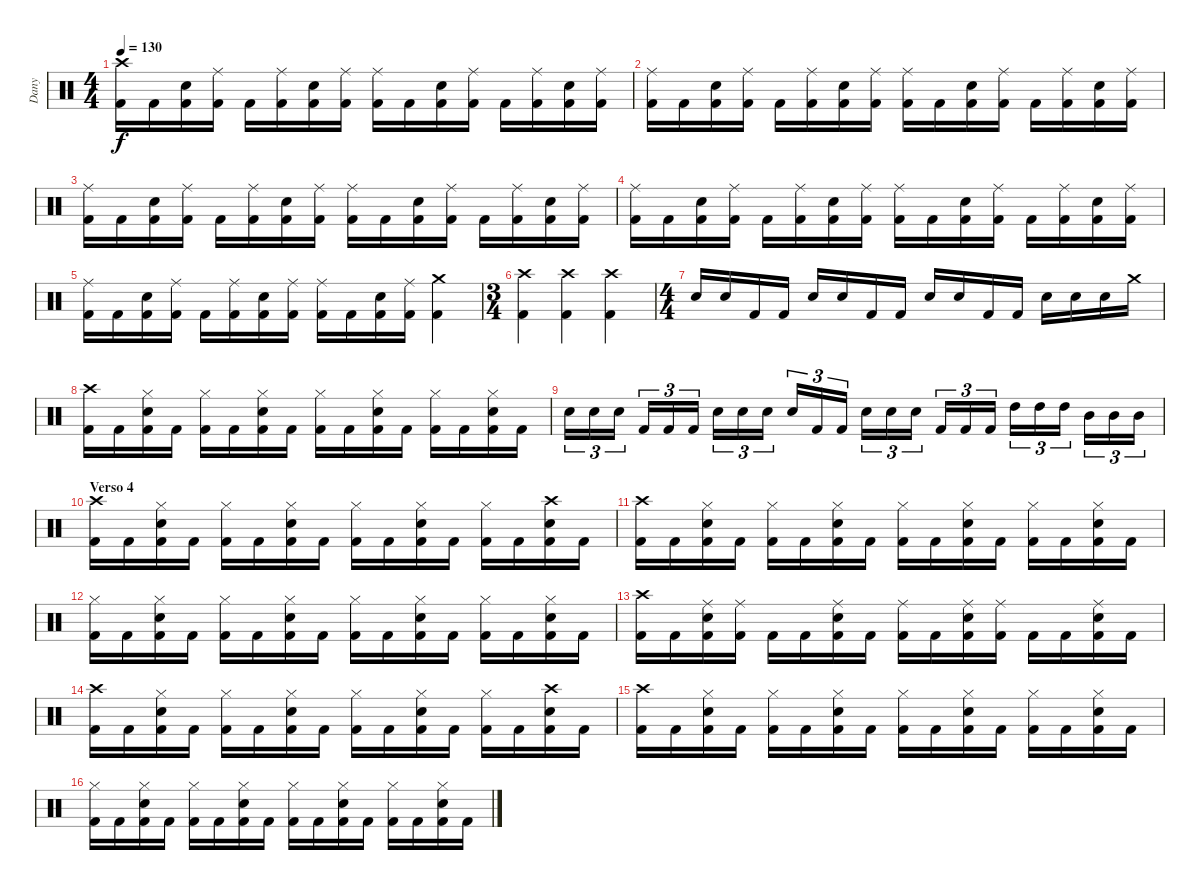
\track ("Dany" "Dany") {instrument percussion}
\staff {score}
\articulation defaults
\ts (4 4)
\tempo 130
\clef neutral
\ks c
("Kick (hit) 2" "Crash high (hit)").16{dy f} "Kick (hit) 2".16 ("Kick (hit) 2" "Electric Snare (hit)").16 ("Kick (hit) 2" "Ride (middle)").16 "Kick (hit) 2".16 ("Kick (hit) 2" "Ride (middle)").16 ("Kick (hit) 2" "Electric Snare (hit)").16 ("Kick (hit) 2" "Ride (middle)").16 ("Kick (hit) 2" "Ride (middle)").16 "Kick (hit) 2".16 ("Kick (hit) 2" "Electric Snare (hit)").16 ("Kick (hit) 2" "Ride (middle)").16 "Kick (hit) 2".16 ("Kick (hit) 2" "Ride (middle)").16 ("Kick (hit) 2" "Electric Snare (hit)").16 ("Kick (hit) 2" "Ride (middle)").16 |
("Kick (hit) 2" "Ride (middle)").16 "Kick (hit) 2".16 ("Kick (hit) 2" "Electric Snare (hit)").16 ("Kick (hit) 2" "Ride (middle)").16 "Kick (hit) 2".16 ("Kick (hit) 2" "Ride (middle)").16 ("Kick (hit) 2" "Electric Snare (hit)").16 ("Kick (hit) 2" "Ride (middle)").16 ("Kick (hit) 2" "Ride (middle)").16 "Kick (hit) 2".16 ("Kick (hit) 2" "Electric Snare (hit)").16 ("Kick (hit) 2" "Ride (middle)").16 "Kick (hit) 2".16 ("Kick (hit) 2" "Ride (middle)").16 ("Kick (hit) 2" "Electric Snare (hit)").16 ("Kick (hit) 2" "Ride (middle)").16 |
("Kick (hit) 2" "Ride (middle)").16 "Kick (hit) 2".16 ("Kick (hit) 2" "Electric Snare (hit)").16 ("Kick (hit) 2" "Ride (middle)").16 "Kick (hit) 2".16 ("Kick (hit) 2" "Ride (middle)").16 ("Kick (hit) 2" "Electric Snare (hit)").16 ("Kick (hit) 2" "Ride (middle)").16 ("Kick (hit) 2" "Ride (middle)").16 "Kick (hit) 2".16 ("Kick (hit) 2" "Electric Snare (hit)").16 ("Kick (hit) 2" "Ride (middle)").16 "Kick (hit) 2".16 ("Kick (hit) 2" "Ride (middle)").16 ("Kick (hit) 2" "Electric Snare (hit)").16 ("Kick (hit) 2" "Ride (middle)").16 |
("Kick (hit) 2" "Ride (middle)").16 "Kick (hit) 2".16 ("Kick (hit) 2" "Electric Snare (hit)").16 ("Kick (hit) 2" "Ride (middle)").16 "Kick (hit) 2".16 ("Kick (hit) 2" "Ride (middle)").16 ("Kick (hit) 2" "Electric Snare (hit)").16 ("Kick (hit) 2" "Ride (middle)").16 ("Kick (hit) 2" "Ride (middle)").16 "Kick (hit) 2".16 ("Kick (hit) 2" "Electric Snare (hit)").16 ("Kick (hit) 2" "Ride (middle)").16 "Kick (hit) 2".16 ("Kick (hit) 2" "Ride (middle)").16 ("Kick (hit) 2" "Electric Snare (hit)").16 ("Kick (hit) 2" "Ride (middle)").16 |
("Kick (hit) 2" "Ride (middle)").16 "Kick (hit) 2".16 ("Kick (hit) 2" "Electric Snare (hit)").16 ("Kick (hit) 2" "Ride (middle)").16 "Kick (hit) 2".16 ("Kick (hit) 2" "Ride (middle)").16 ("Kick (hit) 2" "Electric Snare (hit)").16 ("Kick (hit) 2" "Ride (middle)").16 ("Kick (hit) 2" "Ride (middle)").16 "Kick (hit) 2".16 ("Kick (hit) 2" "Electric Snare (hit)").16 ("Kick (hit) 2" "Ride (middle)").16 ("Kick (hit) 2" "Crash medium (hit)").4 |
\ts (3 4)
("Kick (hit) 2" "Crash high (hit)").4 ("Kick (hit) 2" "Crash high (hit)").4 ("Kick (hit) 2" "Crash high (hit)").4 |
\ts (4 4)
"Electric Snare (hit)".16 "Electric Snare (hit)".16 "Kick (hit) 2".16 "Kick (hit) 2".16 "Electric Snare (hit)".16 "Electric Snare (hit)".16 "Kick (hit) 2".16 "Kick (hit) 2".16 "Electric Snare (hit)".16 "Electric Snare (hit)".16 "Kick (hit) 2".16 "Kick (hit) 2".16 "Electric Snare (hit)".16 "Electric Snare (hit)".16 "Electric Snare (hit)".16 "Crash medium (hit)".16 |
("Kick (hit) 2" "Crash high (hit)").16 "Kick (hit) 2".16 ("Kick (hit) 2" "Electric Snare (hit)" "Hi-Hat (closed)").16 "Kick (hit) 2".16 ("Kick (hit) 2" "Hi-Hat (closed)").16 "Kick (hit) 2".16 ("Kick (hit) 2" "Electric Snare (hit)" "Hi-Hat (closed)").16 "Kick (hit) 2".16 ("Kick (hit) 2" "Hi-Hat (closed)").16 "Kick (hit) 2".16 ("Kick (hit) 2" "Electric Snare (hit)" "Hi-Hat (closed)").16 "Kick (hit) 2".16 ("Kick (hit) 2" "Hi-Hat (closed)").16 "Kick (hit) 2".16 ("Kick (hit) 2" "Electric Snare (hit)" "Hi-Hat (closed)").16 "Kick (hit) 2".16 |
"Electric Snare (hit)".16{tu (3 2)} "Electric Snare (hit)".16{tu (3 2)} "Electric Snare (hit)".16{tu (3 2)} "Kick (hit) 2".16{tu (3 2)} "Kick (hit) 2".16{tu (3 2)} "Kick (hit) 2".16{tu (3 2)} "Electric Snare (hit)".16{tu (3 2)} "Electric Snare (hit)".16{tu (3 2)} "Electric Snare (hit)".16{tu (3 2)} "Electric Snare (hit)".16{tu (3 2)} "Kick (hit) 2".16{tu (3 2)} "Kick (hit) 2".16{tu (3 2)} "Electric Snare (hit)".16{tu (3 2)} "Electric Snare (hit)".16{tu (3 2)} "Electric Snare (hit)".16{tu (3 2)} "Kick (hit) 2".16{tu (3 2)} "Kick (hit) 2".16{tu (3 2)} "Kick (hit) 2".16{tu (3 2)} "High Tom (hit)".16{tu (3 2)} "High Tom (hit)".16{tu (3 2)} "High Tom (hit)".16{tu (3 2)} "Mid Tom (hit)".16{tu (3 2)} "Mid Tom (hit)".16{tu (3 2)} "Mid Tom (hit)".16{tu (3 2)} |
\section ("" "Verso 4")
("Kick (hit) 2" "Crash high (hit)").16 "Kick (hit) 2".16 ("Kick (hit) 2" "Electric Snare (hit)" "Hi-Hat (closed)").16 "Kick (hit) 2".16 ("Kick (hit) 2" "Hi-Hat (closed)").16 "Kick (hit) 2".16 ("Kick (hit) 2" "Electric Snare (hit)" "Hi-Hat (closed)").16 "Kick (hit) 2".16 ("Kick (hit) 2" "Hi-Hat (closed)").16 "Kick (hit) 2".16 ("Kick (hit) 2" "Electric Snare (hit)" "Hi-Hat (closed)").16 "Kick (hit) 2".16 ("Kick (hit) 2" "Hi-Hat (closed)").16 "Kick (hit) 2".16 ("Kick (hit) 2" "Electric Snare (hit)" "Crash high (hit)").16 "Kick (hit) 2".16 |
("Kick (hit) 2" "Crash high (hit)").16 "Kick (hit) 2".16 ("Kick (hit) 2" "Electric Snare (hit)" "Hi-Hat (closed)").16 "Kick (hit) 2".16 ("Kick (hit) 2" "Hi-Hat (closed)").16 "Kick (hit) 2".16 ("Kick (hit) 2" "Electric Snare (hit)" "Hi-Hat (closed)").16 "Kick (hit) 2".16 ("Kick (hit) 2" "Hi-Hat (closed)").16 "Kick (hit) 2".16 ("Kick (hit) 2" "Electric Snare (hit)" "Hi-Hat (closed)").16 "Kick (hit) 2".16 ("Kick (hit) 2" "Hi-Hat (closed)").16 "Kick (hit) 2".16 ("Kick (hit) 2" "Electric Snare (hit)" "Hi-Hat (closed)").16 "Kick (hit) 2".16 |
("Kick (hit) 2" "Hi-Hat (closed)").16 "Kick (hit) 2".16 ("Kick (hit) 2" "Electric Snare (hit)" "Hi-Hat (closed)").16 "Kick (hit) 2".16 ("Kick (hit) 2" "Hi-Hat (closed)").16 "Kick (hit) 2".16 ("Kick (hit) 2" "Electric Snare (hit)" "Hi-Hat (closed)").16 "Kick (hit) 2".16 ("Kick (hit) 2" "Hi-Hat (closed)").16 "Kick (hit) 2".16 ("Kick (hit) 2" "Electric Snare (hit)" "Hi-Hat (closed)").16 "Kick (hit) 2".16 ("Kick (hit) 2" "Hi-Hat (closed)").16 "Kick (hit) 2".16 ("Kick (hit) 2" "Electric Snare (hit)" "Hi-Hat (closed)").16 "Kick (hit) 2".16 |
("Kick (hit) 2" "Crash high (hit)").16 "Kick (hit) 2".16 ("Kick (hit) 2" "Electric Snare (hit)" "Ride (middle)").16 ("Kick (hit) 2" "Ride (middle)").16 "Kick (hit) 2".16 "Kick (hit) 2".16 ("Kick (hit) 2" "Electric Snare (hit)" "Ride (middle)").16 "Kick (hit) 2".16 ("Kick (hit) 2" "Ride (middle)").16 "Kick (hit) 2".16 ("Kick (hit) 2" "Electric Snare (hit)" "Ride (middle)").16 ("Kick (hit) 2" "Ride (middle)").16 "Kick (hit) 2".16 "Kick (hit) 2".16 ("Kick (hit) 2" "Electric Snare (hit)" "Ride (middle)").16 "Kick (hit) 2".16 |
("Kick (hit) 2" "Crash high (hit)").16 "Kick (hit) 2".16 ("Kick (hit) 2" "Electric Snare (hit)" "Hi-Hat (closed)").16 "Kick (hit) 2".16 ("Kick (hit) 2" "Hi-Hat (closed)").16 "Kick (hit) 2".16 ("Kick (hit) 2" "Electric Snare (hit)" "Hi-Hat (closed)").16 "Kick (hit) 2".16 ("Kick (hit) 2" "Hi-Hat (closed)").16 "Kick (hit) 2".16 ("Kick (hit) 2" "Electric Snare (hit)" "Hi-Hat (closed)").16 "Kick (hit) 2".16 ("Kick (hit) 2" "Hi-Hat (closed)").16 "Kick (hit) 2".16 ("Kick (hit) 2" "Electric Snare (hit)" "Crash high (hit)").16 "Kick (hit) 2".16 |
("Kick (hit) 2" "Crash high (hit)").16 "Kick (hit) 2".16 ("Kick (hit) 2" "Electric Snare (hit)" "Hi-Hat (closed)").16 "Kick (hit) 2".16 ("Kick (hit) 2" "Hi-Hat (closed)").16 "Kick (hit) 2".16 ("Kick (hit) 2" "Electric Snare (hit)" "Hi-Hat (closed)").16 "Kick (hit) 2".16 ("Kick (hit) 2" "Hi-Hat (closed)").16 "Kick (hit) 2".16 ("Kick (hit) 2" "Electric Snare (hit)" "Hi-Hat (closed)").16 "Kick (hit) 2".16 ("Kick (hit) 2" "Hi-Hat (closed)").16 "Kick (hit) 2".16 ("Kick (hit) 2" "Electric Snare (hit)" "Hi-Hat (closed)").16 "Kick (hit) 2".16 |
("Kick (hit) 2" "Hi-Hat (closed)").16 "Kick (hit) 2".16 ("Kick (hit) 2" "Electric Snare (hit)" "Hi-Hat (closed)").16 "Kick (hit) 2".16 ("Kick (hit) 2" "Hi-Hat (closed)").16 "Kick (hit) 2".16 ("Kick (hit) 2" "Electric Snare (hit)" "Hi-Hat (closed)").16 "Kick (hit) 2".16 ("Kick (hit) 2" "Hi-Hat (closed)").16 "Kick (hit) 2".16 ("Kick (hit) 2" "Electric Snare (hit)" "Hi-Hat (closed)").16 "Kick (hit) 2".16 ("Kick (hit) 2" "Hi-Hat (closed)").16 "Kick (hit) 2".16 ("Kick (hit) 2" "Electric Snare (hit)" "Hi-Hat (closed)").16 "Kick (hit) 2".16
